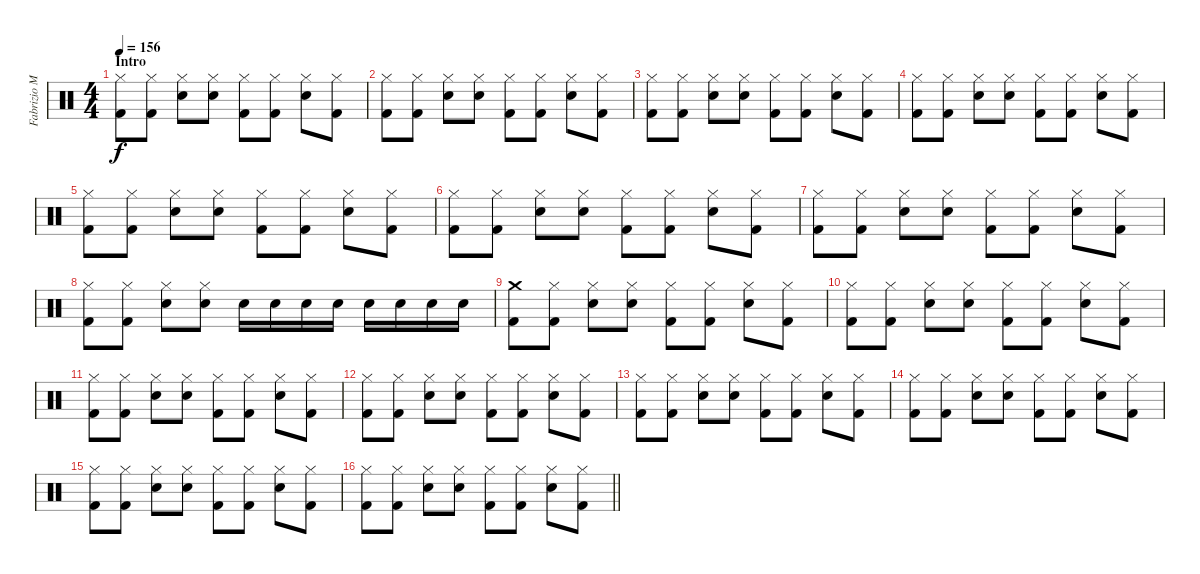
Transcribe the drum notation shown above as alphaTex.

\track ("Fabrizio Moretti (Drums)" "Fabrizio M") {instrument percussion}
\staff {score}
\articulation defaults
\ts (4 4)
\section ("" "Intro")
\tempo 156
\clef neutral
\ks c
("Hi-Hat (closed)" "Kick (hit) 2").8{dy f} ("Hi-Hat (closed)" "Kick (hit) 2").8 ("Hi-Hat (closed)" "Snare (hit) 2").8 ("Hi-Hat (closed)" "Snare (hit) 2").8 ("Hi-Hat (closed)" "Kick (hit) 2").8 ("Hi-Hat (closed)" "Kick (hit) 2").8 ("Hi-Hat (closed)" "Snare (hit) 2").8 ("Hi-Hat (closed)" "Kick (hit) 2").8 |
("Hi-Hat (closed)" "Kick (hit) 2").8 ("Hi-Hat (closed)" "Kick (hit) 2").8 ("Hi-Hat (closed)" "Snare (hit) 2").8 ("Hi-Hat (closed)" "Snare (hit) 2").8 ("Hi-Hat (closed)" "Kick (hit) 2").8 ("Hi-Hat (closed)" "Kick (hit) 2").8 ("Hi-Hat (closed)" "Snare (hit) 2").8 ("Hi-Hat (closed)" "Kick (hit) 2").8 |
("Hi-Hat (closed)" "Kick (hit) 2").8 ("Hi-Hat (closed)" "Kick (hit) 2").8 ("Hi-Hat (closed)" "Snare (hit) 2").8 ("Hi-Hat (closed)" "Snare (hit) 2").8 ("Hi-Hat (closed)" "Kick (hit) 2").8 ("Hi-Hat (closed)" "Kick (hit) 2").8 ("Hi-Hat (closed)" "Snare (hit) 2").8 ("Hi-Hat (closed)" "Kick (hit) 2").8 |
("Hi-Hat (closed)" "Kick (hit) 2").8 ("Hi-Hat (closed)" "Kick (hit) 2").8 ("Hi-Hat (closed)" "Snare (hit) 2").8 ("Hi-Hat (closed)" "Snare (hit) 2").8 ("Hi-Hat (closed)" "Kick (hit) 2").8 ("Hi-Hat (closed)" "Kick (hit) 2").8 ("Hi-Hat (closed)" "Snare (hit) 2").8 ("Hi-Hat (closed)" "Kick (hit) 2").8 |
("Hi-Hat (closed)" "Kick (hit) 2").8 ("Hi-Hat (closed)" "Kick (hit) 2").8 ("Hi-Hat (closed)" "Snare (hit) 2").8 ("Hi-Hat (closed)" "Snare (hit) 2").8 ("Hi-Hat (closed)" "Kick (hit) 2").8 ("Hi-Hat (closed)" "Kick (hit) 2").8 ("Hi-Hat (closed)" "Snare (hit) 2").8 ("Hi-Hat (closed)" "Kick (hit) 2").8 |
("Hi-Hat (closed)" "Kick (hit) 2").8 ("Hi-Hat (closed)" "Kick (hit) 2").8 ("Hi-Hat (closed)" "Snare (hit) 2").8 ("Hi-Hat (closed)" "Snare (hit) 2").8 ("Hi-Hat (closed)" "Kick (hit) 2").8 ("Hi-Hat (closed)" "Kick (hit) 2").8 ("Hi-Hat (closed)" "Snare (hit) 2").8 ("Hi-Hat (closed)" "Kick (hit) 2").8 |
("Hi-Hat (closed)" "Kick (hit) 2").8 ("Hi-Hat (closed)" "Kick (hit) 2").8 ("Hi-Hat (closed)" "Snare (hit) 2").8 ("Hi-Hat (closed)" "Snare (hit) 2").8 ("Hi-Hat (closed)" "Kick (hit) 2").8 ("Hi-Hat (closed)" "Kick (hit) 2").8 ("Hi-Hat (closed)" "Snare (hit) 2").8 ("Hi-Hat (closed)" "Kick (hit) 2").8 |
("Hi-Hat (closed)" "Kick (hit) 2").8 ("Hi-Hat (closed)" "Kick (hit) 2").8 ("Hi-Hat (closed)" "Snare (hit) 2").8 ("Hi-Hat (closed)" "Snare (hit) 2").8 "Snare (hit) 2".16 "Snare (hit) 2".16 "Snare (hit) 2".16 "Snare (hit) 2".16 "Snare (hit) 2".16 "Snare (hit) 2".16 "Snare (hit) 2".16 "Snare (hit) 2".16 |
("Crash medium (hit)" "Kick (hit) 2").8 ("Hi-Hat (closed)" "Kick (hit) 2").8 ("Hi-Hat (closed)" "Snare (hit) 2").8 ("Hi-Hat (closed)" "Snare (hit) 2").8 ("Hi-Hat (closed)" "Kick (hit) 2").8 ("Hi-Hat (closed)" "Kick (hit) 2").8 ("Hi-Hat (closed)" "Snare (hit) 2").8 ("Hi-Hat (closed)" "Kick (hit) 2").8 |
("Hi-Hat (closed)" "Kick (hit) 2").8 ("Hi-Hat (closed)" "Kick (hit) 2").8 ("Hi-Hat (closed)" "Snare (hit) 2").8 ("Hi-Hat (closed)" "Snare (hit) 2").8 ("Hi-Hat (closed)" "Kick (hit) 2").8 ("Hi-Hat (closed)" "Kick (hit) 2").8 ("Hi-Hat (closed)" "Snare (hit) 2").8 ("Hi-Hat (closed)" "Kick (hit) 2").8 |
("Hi-Hat (closed)" "Kick (hit) 2").8 ("Hi-Hat (closed)" "Kick (hit) 2").8 ("Hi-Hat (closed)" "Snare (hit) 2").8 ("Hi-Hat (closed)" "Snare (hit) 2").8 ("Hi-Hat (closed)" "Kick (hit) 2").8 ("Hi-Hat (closed)" "Kick (hit) 2").8 ("Hi-Hat (closed)" "Snare (hit) 2").8 ("Hi-Hat (closed)" "Kick (hit) 2").8 |
("Hi-Hat (closed)" "Kick (hit) 2").8 ("Hi-Hat (closed)" "Kick (hit) 2").8 ("Hi-Hat (closed)" "Snare (hit) 2").8 ("Hi-Hat (closed)" "Snare (hit) 2").8 ("Hi-Hat (closed)" "Kick (hit) 2").8 ("Hi-Hat (closed)" "Kick (hit) 2").8 ("Hi-Hat (closed)" "Snare (hit) 2").8 ("Hi-Hat (closed)" "Kick (hit) 2").8 |
("Hi-Hat (closed)" "Kick (hit) 2").8 ("Hi-Hat (closed)" "Kick (hit) 2").8 ("Hi-Hat (closed)" "Snare (hit) 2").8 ("Hi-Hat (closed)" "Snare (hit) 2").8 ("Hi-Hat (closed)" "Kick (hit) 2").8 ("Hi-Hat (closed)" "Kick (hit) 2").8 ("Hi-Hat (closed)" "Snare (hit) 2").8 ("Hi-Hat (closed)" "Kick (hit) 2").8 |
("Hi-Hat (closed)" "Kick (hit) 2").8 ("Hi-Hat (closed)" "Kick (hit) 2").8 ("Hi-Hat (closed)" "Snare (hit) 2").8 ("Hi-Hat (closed)" "Snare (hit) 2").8 ("Hi-Hat (closed)" "Kick (hit) 2").8 ("Hi-Hat (closed)" "Kick (hit) 2").8 ("Hi-Hat (closed)" "Snare (hit) 2").8 ("Hi-Hat (closed)" "Kick (hit) 2").8 |
("Hi-Hat (closed)" "Kick (hit) 2").8 ("Hi-Hat (closed)" "Kick (hit) 2").8 ("Hi-Hat (closed)" "Snare (hit) 2").8 ("Hi-Hat (closed)" "Snare (hit) 2").8 ("Hi-Hat (closed)" "Kick (hit) 2").8 ("Hi-Hat (closed)" "Kick (hit) 2").8 ("Hi-Hat (closed)" "Snare (hit) 2").8 ("Hi-Hat (closed)" "Kick (hit) 2").8 |
\barLineRight lightlight
("Hi-Hat (closed)" "Kick (hit) 2").8 ("Hi-Hat (closed)" "Kick (hit) 2").8 ("Hi-Hat (closed)" "Snare (hit) 2").8 ("Hi-Hat (closed)" "Snare (hit) 2").8 ("Hi-Hat (closed)" "Kick (hit) 2").8 ("Hi-Hat (closed)" "Kick (hit) 2").8 ("Hi-Hat (closed)" "Snare (hit) 2").8 ("Hi-Hat (closed)" "Kick (hit) 2").8
